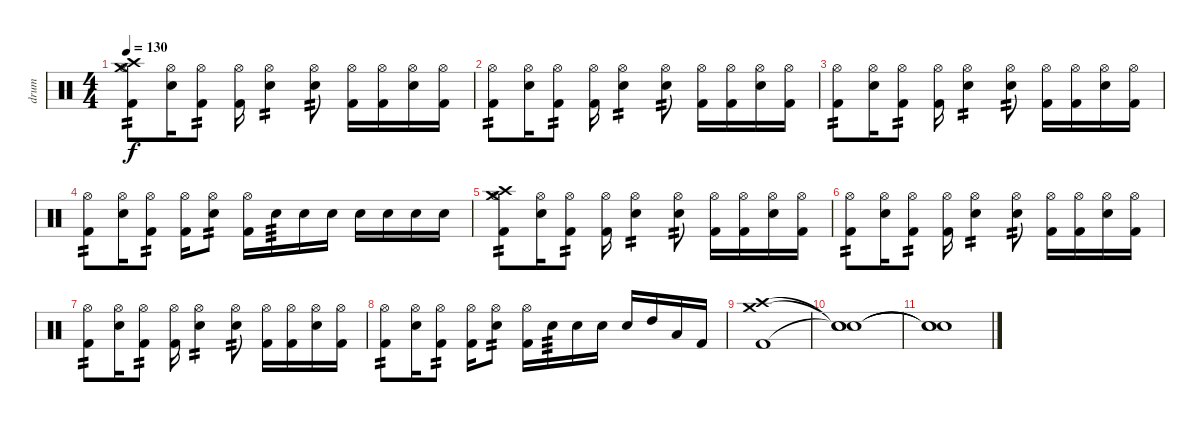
\track ("drum" "drum") {instrument percussion}
\staff {score}
\articulation defaults
\ts (4 4)
\tempo 130
\clef neutral
\ks c
("Crash high (hit)" "Hi-Hat (open)" "Crash medium (hit)" "Kick (hit) 2").8{tp 2 dy f} ("Hi-Hat (open)" "Electric Snare (hit)").16 ("Hi-Hat (open)" "Kick (hit) 2").8{tp 2} ("Hi-Hat (open)" "Kick (hit) 2").16 ("Hi-Hat (open)" "Electric Snare (hit)").4{tp 2} ("Hi-Hat (open)" "Electric Snare (hit)").8{tp 2} ("Hi-Hat (open)" "Kick (hit) 2").16 ("Hi-Hat (open)" "Kick (hit) 2").16 ("Hi-Hat (open)" "Electric Snare (hit)").16 ("Hi-Hat (open)" "Kick (hit) 2").16 |
("Hi-Hat (open)" "Kick (hit) 2").8{tp 2} ("Hi-Hat (open)" "Electric Snare (hit)").16 ("Hi-Hat (open)" "Kick (hit) 2").8{tp 2} ("Hi-Hat (open)" "Kick (hit) 2").16 ("Hi-Hat (open)" "Electric Snare (hit)").4{tp 2} ("Hi-Hat (open)" "Electric Snare (hit)").8{tp 2} ("Hi-Hat (open)" "Kick (hit) 2").16 ("Hi-Hat (open)" "Kick (hit) 2").16 ("Hi-Hat (open)" "Electric Snare (hit)").16 ("Hi-Hat (open)" "Kick (hit) 2").16 |
("Hi-Hat (open)" "Kick (hit) 2").8{tp 2} ("Hi-Hat (open)" "Electric Snare (hit)").16 ("Hi-Hat (open)" "Kick (hit) 2").8{tp 2} ("Hi-Hat (open)" "Kick (hit) 2").16 ("Hi-Hat (open)" "Electric Snare (hit)").4{tp 2} ("Hi-Hat (open)" "Electric Snare (hit)").8{tp 2} ("Hi-Hat (open)" "Kick (hit) 2").16 ("Hi-Hat (open)" "Kick (hit) 2").16 ("Hi-Hat (open)" "Electric Snare (hit)").16 ("Hi-Hat (open)" "Kick (hit) 2").16 |
("Hi-Hat (open)" "Kick (hit) 2").8{tp 2} ("Hi-Hat (open)" "Electric Snare (hit)").16 ("Hi-Hat (open)" "Kick (hit) 2").8{tp 2} ("Hi-Hat (open)" "Kick (hit) 2").16 ("Hi-Hat (open)" "Electric Snare (hit)").8{tp 2} ("Hi-Hat (open)" "Kick (hit) 2").16 "Electric Snare (hit)".16{tp 3} "Electric Snare (hit)".16 "Electric Snare (hit)".16 "Electric Snare (hit)".16 "Electric Snare (hit)".16 "Electric Snare (hit)".16 "Electric Snare (hit)".16 |
("Crash high (hit)" "Hi-Hat (open)" "Crash medium (hit)" "Kick (hit) 2").8{tp 2} ("Hi-Hat (open)" "Electric Snare (hit)").16 ("Hi-Hat (open)" "Kick (hit) 2").8{tp 2} ("Hi-Hat (open)" "Kick (hit) 2").16 ("Hi-Hat (open)" "Electric Snare (hit)").4{tp 2} ("Hi-Hat (open)" "Electric Snare (hit)").8{tp 2} ("Hi-Hat (open)" "Kick (hit) 2").16 ("Hi-Hat (open)" "Kick (hit) 2").16 ("Hi-Hat (open)" "Electric Snare (hit)").16 ("Hi-Hat (open)" "Kick (hit) 2").16 |
("Hi-Hat (open)" "Kick (hit) 2").8{tp 2} ("Hi-Hat (open)" "Electric Snare (hit)").16 ("Hi-Hat (open)" "Kick (hit) 2").8{tp 2} ("Hi-Hat (open)" "Kick (hit) 2").16 ("Hi-Hat (open)" "Electric Snare (hit)").4{tp 2} ("Hi-Hat (open)" "Electric Snare (hit)").8{tp 2} ("Hi-Hat (open)" "Kick (hit) 2").16 ("Hi-Hat (open)" "Kick (hit) 2").16 ("Hi-Hat (open)" "Electric Snare (hit)").16 ("Hi-Hat (open)" "Kick (hit) 2").16 |
("Hi-Hat (open)" "Kick (hit) 2").8{tp 2} ("Hi-Hat (open)" "Electric Snare (hit)").16 ("Hi-Hat (open)" "Kick (hit) 2").8{tp 2} ("Hi-Hat (open)" "Kick (hit) 2").16 ("Hi-Hat (open)" "Electric Snare (hit)").4{tp 2} ("Hi-Hat (open)" "Electric Snare (hit)").8{tp 2} ("Hi-Hat (open)" "Kick (hit) 2").16 ("Hi-Hat (open)" "Kick (hit) 2").16 ("Hi-Hat (open)" "Electric Snare (hit)").16 ("Hi-Hat (open)" "Kick (hit) 2").16 |
("Hi-Hat (open)" "Kick (hit) 2").8{tp 2} ("Hi-Hat (open)" "Electric Snare (hit)").16 ("Hi-Hat (open)" "Kick (hit) 2").8{tp 2} ("Hi-Hat (open)" "Kick (hit) 2").16 ("Hi-Hat (open)" "Electric Snare (hit)").8{tp 2} ("Hi-Hat (open)" "Kick (hit) 2").16 "Electric Snare (hit)".16{tp 3} "Electric Snare (hit)".16 "Electric Snare (hit)".16 "Electric Snare (hit)".16 "High Tom (hit)".16 "Low Tom (hit)".16 "Kick (hit) 2".16 |
("Crash medium (hit)" "Crash high (hit)" "Kick (hit) 2").1 |
("Snare (hit)"{t} "Snare (hit)"{t} "Snare (hit)"{t}).1 |
("Snare (hit)"{t} "Snare (hit)"{t} "Snare (hit)"{t}).1
